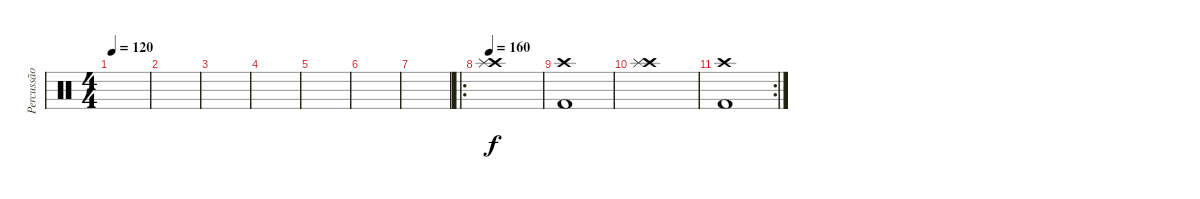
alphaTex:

\track ("Percussão" "Percussão") {instrument percussion}
\staff {score}
\articulation defaults
\ts (4 4)
\tempo 120
\clef neutral
\ks c
|
|
|
|
|
|
|
\ro
\tempo 160
("Crash high (hit)" "Splash (hit)").1 |
("Crash high (hit)" "Kick (hit) 2").1 |
("Crash high (hit)" "Splash (hit)").1 |
\rc 2
("Crash high (hit)" "Kick (hit) 2").1
